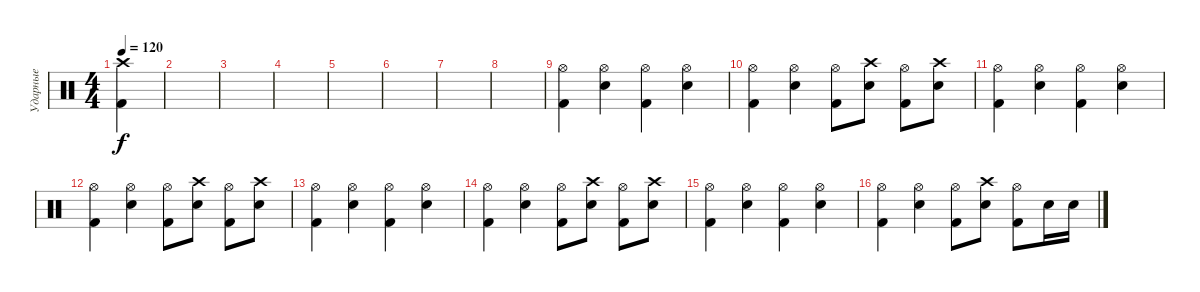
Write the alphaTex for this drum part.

\track ("Ударные" "Ударные") {instrument percussion}
\staff {score}
\articulation defaults
\ts (4 4)
\tempo 120
\clef neutral
\ks c
("Crash high (hit)" "Kick (hit) 2").4{dy f} |
|
|
|
|
|
|
|
("Hi-Hat (open)" "Kick (hit) 2").4 ("Hi-Hat (open)" "Electric Snare (hit)").4 ("Hi-Hat (open)" "Kick (hit) 2").4 ("Hi-Hat (open)" "Electric Snare (hit)").4 |
("Hi-Hat (open)" "Kick (hit) 2").4 ("Hi-Hat (open)" "Electric Snare (hit)").4 ("Hi-Hat (open)" "Kick (hit) 2").8 ("Crash high (hit)" "Electric Snare (hit)").8 ("Hi-Hat (open)" "Kick (hit) 2").8 ("Crash high (hit)" "Electric Snare (hit)").8 |
("Hi-Hat (open)" "Kick (hit) 2").4 ("Hi-Hat (open)" "Electric Snare (hit)").4 ("Hi-Hat (open)" "Kick (hit) 2").4 ("Hi-Hat (open)" "Electric Snare (hit)").4 |
("Hi-Hat (open)" "Kick (hit) 2").4 ("Hi-Hat (open)" "Electric Snare (hit)").4 ("Hi-Hat (open)" "Kick (hit) 2").8 ("Crash high (hit)" "Electric Snare (hit)").8 ("Hi-Hat (open)" "Kick (hit) 2").8 ("Crash high (hit)" "Electric Snare (hit)").8 |
("Hi-Hat (open)" "Kick (hit) 2").4 ("Hi-Hat (open)" "Electric Snare (hit)").4 ("Hi-Hat (open)" "Kick (hit) 2").4 ("Hi-Hat (open)" "Electric Snare (hit)").4 |
("Hi-Hat (open)" "Kick (hit) 2").4 ("Hi-Hat (open)" "Electric Snare (hit)").4 ("Hi-Hat (open)" "Kick (hit) 2").8 ("Crash high (hit)" "Electric Snare (hit)").8 ("Hi-Hat (open)" "Kick (hit) 2").8 ("Crash high (hit)" "Electric Snare (hit)").8 |
("Hi-Hat (open)" "Kick (hit) 2").4 ("Hi-Hat (open)" "Electric Snare (hit)").4 ("Hi-Hat (open)" "Kick (hit) 2").4 ("Hi-Hat (open)" "Electric Snare (hit)").4 |
("Hi-Hat (open)" "Kick (hit) 2").4 ("Hi-Hat (open)" "Electric Snare (hit)").4 ("Hi-Hat (open)" "Kick (hit) 2").8 ("Crash high (hit)" "Electric Snare (hit)").8 ("Hi-Hat (open)" "Kick (hit) 2").8 "Electric Snare (hit)".16 "Electric Snare (hit)".16
